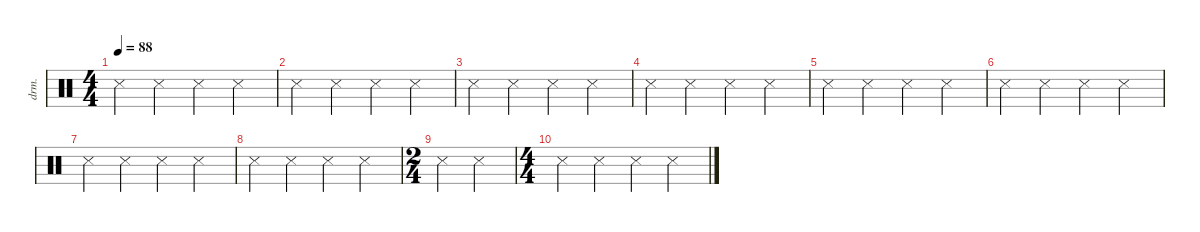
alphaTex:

\defaultSystemsLayout 4
\hideDynamics
\bracketExtendMode nobrackets
\otherSystemsTrackNameOrientation horizontal
\track ("Drumkit" "drm.") {instrument percussion}
\staff {score}
\articulation defaults
\ts (4 4)
\tempo 88
\clef neutral
\ks c "Metronome (hit)".4{dy mf} "Metronome (hit)".4 "Metronome (hit)".4 "Metronome (hit)".4
|
"Metronome (hit)".4 "Metronome (hit)".4 "Metronome (hit)".4 "Metronome (hit)".4 |
"Metronome (hit)".4 "Metronome (hit)".4 "Metronome (hit)".4 "Metronome (hit)".4 |
"Metronome (hit)".4 "Metronome (hit)".4 "Metronome (hit)".4 "Metronome (hit)".4 |
"Metronome (hit)".4 "Metronome (hit)".4 "Metronome (hit)".4 "Metronome (hit)".4 |
"Metronome (hit)".4 "Metronome (hit)".4 "Metronome (hit)".4 "Metronome (hit)".4 |
"Metronome (hit)".4 "Metronome (hit)".4 "Metronome (hit)".4 "Metronome (hit)".4 |
"Metronome (hit)".4 "Metronome (hit)".4 "Metronome (hit)".4 "Metronome (hit)".4 |
\ts (2 4)
\beaming (8 2 2)
"Metronome (hit)".4 "Metronome (hit)".4 |
\ts (4 4)
\beaming (8 2 2 2 2)
"Metronome (hit)".4 "Metronome (hit)".4 "Metronome (hit)".4 "Metronome (hit)".4
